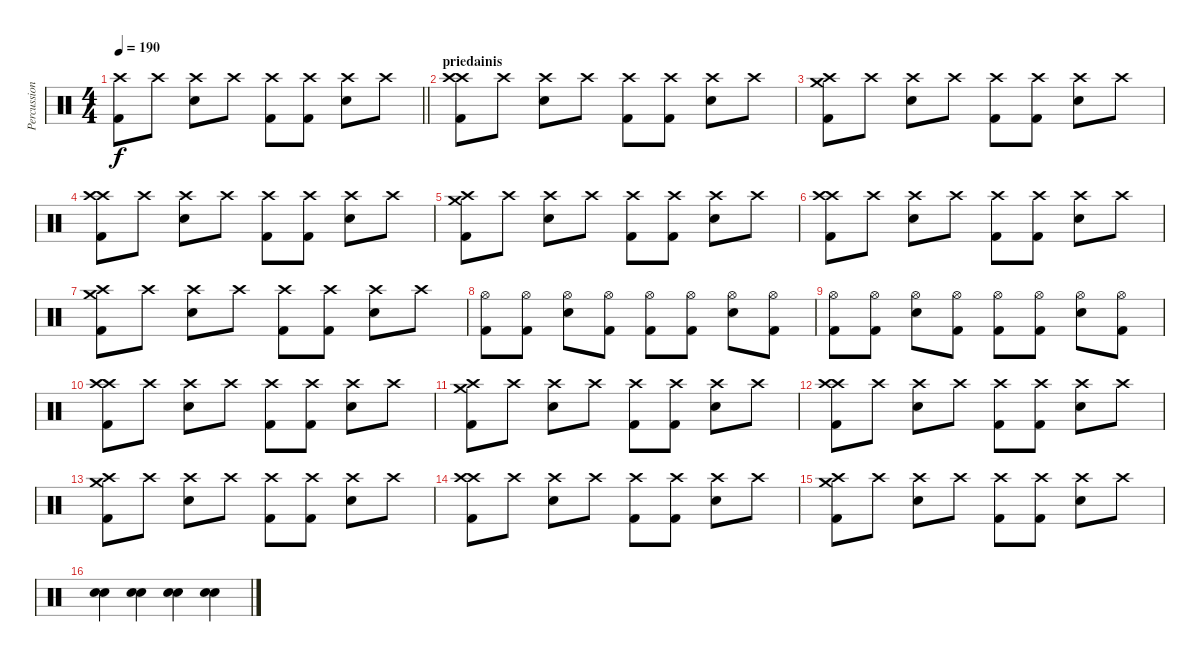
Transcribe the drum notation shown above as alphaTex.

\track ("Percussion" "Percussion") {instrument percussion}
\staff {score}
\articulation defaults
\ts (4 4)
\tempo 190
\clef neutral
\barLineRight lightlight
\ks c
("Crash high (hit)" "Kick (hit) 2").8{dy f} "Crash high (hit)".8 ("Crash high (hit)" "Snare (hit) 2").8 "Crash high (hit)".8 ("Crash high (hit)" "Kick (hit) 2").8 ("Crash high (hit)" "Kick (hit) 2").8 ("Crash high (hit)" "Snare (hit) 2").8 "Crash high (hit)".8 |
\section ("" "priedainis")
("Crash high (hit)" "Crash high (hit)" "Kick (hit) 2").8 "Crash high (hit)".8 ("Crash high (hit)" "Snare (hit) 2").8 "Crash high (hit)".8 ("Crash high (hit)" "Kick (hit) 2").8 ("Crash high (hit)" "Kick (hit) 2").8 ("Crash high (hit)" "Snare (hit) 2").8 "Crash high (hit)".8 |
("Crash medium (hit)" "Crash high (hit)" "Kick (hit) 2").8 "Crash high (hit)".8 ("Crash high (hit)" "Snare (hit) 2").8 "Crash high (hit)".8 ("Crash high (hit)" "Kick (hit) 2").8 ("Crash high (hit)" "Kick (hit) 2").8 ("Crash high (hit)" "Snare (hit) 2").8 "Crash high (hit)".8 |
("Crash high (hit)" "Crash high (hit)" "Kick (hit) 2").8 "Crash high (hit)".8 ("Crash high (hit)" "Snare (hit) 2").8 "Crash high (hit)".8 ("Crash high (hit)" "Kick (hit) 2").8 ("Crash high (hit)" "Kick (hit) 2").8 ("Crash high (hit)" "Snare (hit) 2").8 "Crash high (hit)".8 |
("Crash medium (hit)" "Crash high (hit)" "Kick (hit) 2").8 "Crash high (hit)".8 ("Crash high (hit)" "Snare (hit) 2").8 "Crash high (hit)".8 ("Crash high (hit)" "Kick (hit) 2").8 ("Crash high (hit)" "Kick (hit) 2").8 ("Crash high (hit)" "Snare (hit) 2").8 "Crash high (hit)".8 |
("Crash high (hit)" "Crash high (hit)" "Kick (hit) 2").8 "Crash high (hit)".8 ("Crash high (hit)" "Snare (hit) 2").8 "Crash high (hit)".8 ("Crash high (hit)" "Kick (hit) 2").8 ("Crash high (hit)" "Kick (hit) 2").8 ("Crash high (hit)" "Snare (hit) 2").8 "Crash high (hit)".8 |
("Crash medium (hit)" "Crash high (hit)" "Kick (hit) 2").8 "Crash high (hit)".8 ("Crash high (hit)" "Snare (hit) 2").8 "Crash high (hit)".8 ("Crash high (hit)" "Kick (hit) 2").8 ("Crash high (hit)" "Kick (hit) 2").8 ("Crash high (hit)" "Snare (hit) 2").8 "Crash high (hit)".8 |
("Hi-Hat (open)" "Kick (hit) 2").8 ("Hi-Hat (open)" "Kick (hit) 2").8 ("Hi-Hat (open)" "Snare (hit) 2").8 ("Hi-Hat (open)" "Kick (hit) 2").8 ("Hi-Hat (open)" "Kick (hit) 2").8 ("Hi-Hat (open)" "Kick (hit) 2").8 ("Hi-Hat (open)" "Snare (hit) 2").8 ("Hi-Hat (open)" "Kick (hit) 2").8 |
("Hi-Hat (open)" "Kick (hit) 2").8 ("Hi-Hat (open)" "Kick (hit) 2").8 ("Hi-Hat (open)" "Snare (hit) 2").8 ("Hi-Hat (open)" "Kick (hit) 2").8 ("Hi-Hat (open)" "Kick (hit) 2").8 ("Hi-Hat (open)" "Kick (hit) 2").8 ("Hi-Hat (open)" "Snare (hit) 2").8 ("Hi-Hat (open)" "Kick (hit) 2").8 |
("Crash high (hit)" "Crash high (hit)" "Kick (hit) 2").8 "Crash high (hit)".8 ("Crash high (hit)" "Snare (hit) 2").8 "Crash high (hit)".8 ("Crash high (hit)" "Kick (hit) 2").8 ("Crash high (hit)" "Kick (hit) 2").8 ("Crash high (hit)" "Snare (hit) 2").8 "Crash high (hit)".8 |
("Crash medium (hit)" "Crash high (hit)" "Kick (hit) 2").8 "Crash high (hit)".8 ("Crash high (hit)" "Snare (hit) 2").8 "Crash high (hit)".8 ("Crash high (hit)" "Kick (hit) 2").8 ("Crash high (hit)" "Kick (hit) 2").8 ("Crash high (hit)" "Snare (hit) 2").8 "Crash high (hit)".8 |
("Crash high (hit)" "Crash high (hit)" "Kick (hit) 2").8 "Crash high (hit)".8 ("Crash high (hit)" "Snare (hit) 2").8 "Crash high (hit)".8 ("Crash high (hit)" "Kick (hit) 2").8 ("Crash high (hit)" "Kick (hit) 2").8 ("Crash high (hit)" "Snare (hit) 2").8 "Crash high (hit)".8 |
("Crash medium (hit)" "Crash high (hit)" "Kick (hit) 2").8 "Crash high (hit)".8 ("Crash high (hit)" "Snare (hit) 2").8 "Crash high (hit)".8 ("Crash high (hit)" "Kick (hit) 2").8 ("Crash high (hit)" "Kick (hit) 2").8 ("Crash high (hit)" "Snare (hit) 2").8 "Crash high (hit)".8 |
("Crash high (hit)" "Crash high (hit)" "Kick (hit) 2").8 "Crash high (hit)".8 ("Crash high (hit)" "Snare (hit) 2").8 "Crash high (hit)".8 ("Crash high (hit)" "Kick (hit) 2").8 ("Crash high (hit)" "Kick (hit) 2").8 ("Crash high (hit)" "Snare (hit) 2").8 "Crash high (hit)".8 |
("Crash medium (hit)" "Crash high (hit)" "Kick (hit) 2").8 "Crash high (hit)".8 ("Crash high (hit)" "Snare (hit) 2").8 "Crash high (hit)".8 ("Crash high (hit)" "Kick (hit) 2").8 ("Crash high (hit)" "Kick (hit) 2").8 ("Crash high (hit)" "Snare (hit) 2").8 "Crash high (hit)".8 |
("Snare (hit) 2" "Snare (hit) 2").4 ("Snare (hit) 2" "Snare (hit) 2").4 ("Snare (hit) 2" "Snare (hit) 2").4 ("Snare (hit) 2" "Snare (hit) 2").4
